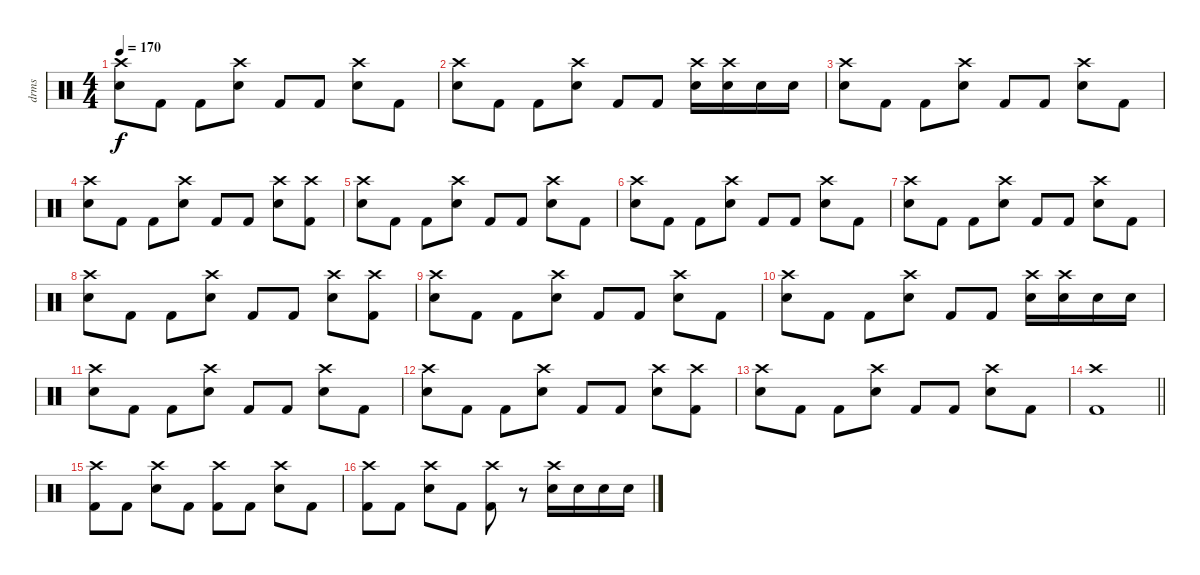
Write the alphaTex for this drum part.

\track ("drms" "drms") {instrument percussion}
\staff {score}
\articulation defaults
\ts (4 4)
\tempo 170
\clef neutral
\ks c
("Crash high (hit)" "Snare (hit) 2").8{dy f} "Kick (hit) 2".8 "Kick (hit) 2".8 ("Crash high (hit)" "Snare (hit) 2").8 "Kick (hit) 2".8 "Kick (hit) 2".8 ("Crash high (hit)" "Snare (hit) 2").8 "Kick (hit) 2".8 |
("Crash high (hit)" "Snare (hit) 2").8 "Kick (hit) 2".8 "Kick (hit) 2".8 ("Crash high (hit)" "Snare (hit) 2").8 "Kick (hit) 2".8 "Kick (hit) 2".8 ("Crash high (hit)" "Electric Snare (hit)").16 ("Crash high (hit)" "Electric Snare (hit)").16 "Electric Snare (hit)".16 "Electric Snare (hit)".16 |
("Crash high (hit)" "Snare (hit) 2").8 "Kick (hit) 2".8 "Kick (hit) 2".8 ("Crash high (hit)" "Snare (hit) 2").8 "Kick (hit) 2".8 "Kick (hit) 2".8 ("Crash high (hit)" "Snare (hit) 2").8 "Kick (hit) 2".8 |
("Crash high (hit)" "Snare (hit) 2").8 "Kick (hit) 2".8 "Kick (hit) 2".8 ("Crash high (hit)" "Snare (hit) 2").8 "Kick (hit) 2".8 "Kick (hit) 2".8 ("Crash high (hit)" "Snare (hit) 2").8 ("Crash high (hit)" "Kick (hit) 2").8 |
("Crash high (hit)" "Snare (hit) 2").8 "Kick (hit) 2".8 "Kick (hit) 2".8 ("Crash high (hit)" "Snare (hit) 2").8 "Kick (hit) 2".8 "Kick (hit) 2".8 ("Crash high (hit)" "Snare (hit) 2").8 "Kick (hit) 2".8 |
("Crash high (hit)" "Electric Snare (hit)").8 "Kick (hit) 2".8 "Kick (hit) 2".8 ("Crash high (hit)" "Electric Snare (hit)").8 "Kick (hit) 2".8 "Kick (hit) 2".8 ("Crash high (hit)" "Electric Snare (hit)").8 "Kick (hit) 2".8 |
("Crash high (hit)" "Snare (hit) 2").8 "Kick (hit) 2".8 "Kick (hit) 2".8 ("Crash high (hit)" "Snare (hit) 2").8 "Kick (hit) 2".8 "Kick (hit) 2".8 ("Crash high (hit)" "Snare (hit) 2").8 "Kick (hit) 2".8 |
("Crash high (hit)" "Snare (hit) 2").8 "Kick (hit) 2".8 "Kick (hit) 2".8 ("Crash high (hit)" "Snare (hit) 2").8 "Kick (hit) 2".8 "Kick (hit) 2".8 ("Crash high (hit)" "Snare (hit) 2").8 ("Crash high (hit)" "Kick (hit) 2").8 |
("Crash high (hit)" "Snare (hit) 2").8 "Kick (hit) 2".8 "Kick (hit) 2".8 ("Crash high (hit)" "Snare (hit) 2").8 "Kick (hit) 2".8 "Kick (hit) 2".8 ("Crash high (hit)" "Snare (hit) 2").8 "Kick (hit) 2".8 |
("Crash high (hit)" "Snare (hit) 2").8 "Kick (hit) 2".8 "Kick (hit) 2".8 ("Crash high (hit)" "Snare (hit) 2").8 "Kick (hit) 2".8 "Kick (hit) 2".8 ("Crash high (hit)" "Electric Snare (hit)").16 ("Crash high (hit)" "Electric Snare (hit)").16 "Electric Snare (hit)".16 "Electric Snare (hit)".16 |
("Crash high (hit)" "Snare (hit) 2").8 "Kick (hit) 2".8 "Kick (hit) 2".8 ("Crash high (hit)" "Snare (hit) 2").8 "Kick (hit) 2".8 "Kick (hit) 2".8 ("Crash high (hit)" "Snare (hit) 2").8 "Kick (hit) 2".8 |
("Crash high (hit)" "Snare (hit) 2").8 "Kick (hit) 2".8 "Kick (hit) 2".8 ("Crash high (hit)" "Snare (hit) 2").8 "Kick (hit) 2".8 "Kick (hit) 2".8 ("Crash high (hit)" "Snare (hit) 2").8 ("Crash high (hit)" "Kick (hit) 2").8 |
("Crash high (hit)" "Snare (hit) 2").8 "Kick (hit) 2".8 "Kick (hit) 2".8 ("Crash high (hit)" "Snare (hit) 2").8 "Kick (hit) 2".8 "Kick (hit) 2".8 ("Crash high (hit)" "Snare (hit) 2").8 "Kick (hit) 2".8 |
\barLineRight lightlight
("Crash high (hit)" "Kick (hit) 2").1 |
("Crash high (hit)" "Kick (hit) 2").8 "Kick (hit) 2".8 ("Crash high (hit)" "Snare (hit) 2").8 "Kick (hit) 2".8 ("Crash high (hit)" "Kick (hit) 2").8 "Kick (hit) 2".8 ("Crash high (hit)" "Snare (hit) 2").8 "Kick (hit) 2".8 |
("Crash high (hit)" "Kick (hit) 2").8 "Kick (hit) 2".8 ("Crash high (hit)" "Snare (hit) 2").8 "Kick (hit) 2".8 ("Crash high (hit)" "Kick (hit) 2").8 r.8 ("Crash high (hit)" "Electric Snare (hit)").16 "Electric Snare (hit)".16 "Electric Snare (hit)".16 "Electric Snare (hit)".16
